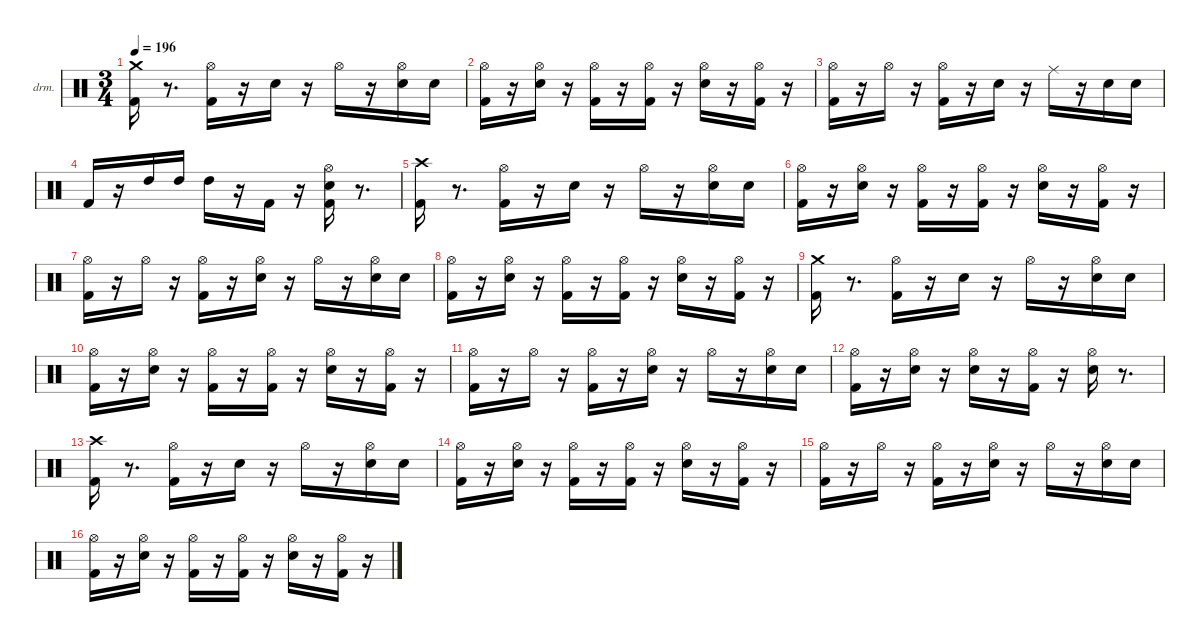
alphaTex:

\hideDynamics
\bracketExtendMode nobrackets
\firstSystemTrackNameOrientation horizontal
\otherSystemsTrackNameOrientation horizontal
\track ("EZdrummer 3" "drm.") {instrument percussion}
\staff {score}
\articulation defaults
\ts (3 4)
\tempo 196
\clef neutral
\ks aminor
("Kick (hit) 2" "Crash medium (hit)").16{dy fff beam Down} r.8{d beam Down} ("Kick (hit) 2" "Hi-Hat (open)"{acc #}).16{dy f beam Down} r.16{beam Down} "Snare (hit) 2".16{dy ff beam Down} r.16{beam Down} "Hi-Hat (open)"{acc #}.16{dy f beam Down} r.16{beam Down} ("Snare (hit) 2" "Hi-Hat (open)"{acc #}).16{beam Down} "Snare (hit) 2".16{dy mp beam Down} |
("Kick (hit) 2" "Hi-Hat (open)"{acc #}).16{dy fff beam Down} r.16{beam Down} ("Snare (hit) 2" "Hi-Hat (open)"{acc #}).16{dy ff beam Down} r.16{beam Down} ("Kick (hit) 2" "Hi-Hat (open)"{acc #}).16{dy mf beam Down} r.16{beam Down} ("Kick (hit) 2" "Hi-Hat (open)"{acc #}).16{dy fff beam Down} r.16{beam Down} ("Snare (hit) 2" "Hi-Hat (open)"{acc #}).16{dy ff beam Down} r.16{beam Down} ("Kick (hit) 2" "Hi-Hat (open)"{acc #}).16{dy mp beam Down} r.16{beam Down} |
("Kick (hit) 2" "Hi-Hat (open)"{acc #}).16{dy fff beam Down} r.16{beam Down} "Hi-Hat (open)"{acc #}.16{dy pp beam Down} r.16{beam Down} ("Kick (hit) 2" "Hi-Hat (open)"{acc #}).16{dy f beam Down} r.16{beam Down} "Snare (hit) 2".16{dy ff beam Down} r.16{beam Down} "Ride (middle)"{acc #}.16{dy fff beam Down} r.16{beam Down} "Snare (hit) 2".16{dy f beam Down} "Snare (hit) 2".16{dy mp beam Down} |
"Kick (hit) 2".16{dy fff beam Up} r.16{beam Up} "High Tom (hit)".16{dy ff beam Down} "High Tom (hit)".16{dy mf beam Down} "High Tom (hit)".16{dy fff beam Down} r.16{beam Down} "Kick (hit) 2".16{dy ff beam Up} r.16{beam Up} ("Kick (hit) 2" "Snare (hit) 2" "Hi-Hat (open)"{acc #}).16{dy fff beam Down} r.8{d beam Down} |
("Kick (hit) 2" "Crash high (hit)"{acc #}).16{beam Down} r.8{d beam Down} ("Kick (hit) 2" "Hi-Hat (open)"{acc #}).16{dy f beam Down} r.16{beam Down} "Snare (hit) 2".16{dy ff beam Down} r.16{beam Down} "Hi-Hat (open)"{acc #}.16{dy f beam Down} r.16{beam Down} ("Snare (hit) 2" "Hi-Hat (open)"{acc #}).16{beam Down} "Snare (hit) 2".16{dy mp beam Down} |
("Kick (hit) 2" "Hi-Hat (open)"{acc #}).16{dy fff beam Down} r.16{beam Down} ("Snare (hit) 2" "Hi-Hat (open)"{acc #}).16{dy ff beam Down} r.16{beam Down} ("Kick (hit) 2" "Hi-Hat (open)"{acc #}).16{dy mf beam Down} r.16{beam Down} ("Kick (hit) 2" "Hi-Hat (open)"{acc #}).16{dy fff beam Down} r.16{beam Down} ("Snare (hit) 2" "Hi-Hat (open)"{acc #}).16{dy ff beam Down} r.16{beam Down} ("Kick (hit) 2" "Hi-Hat (open)"{acc #}).16{dy mp beam Down} r.16{beam Down} |
("Kick (hit) 2" "Hi-Hat (open)"{acc #}).16{dy fff beam Down} r.16{beam Down} "Hi-Hat (open)"{acc #}.16{dy pp beam Down} r.16{beam Down} ("Kick (hit) 2" "Hi-Hat (open)"{acc #}).16{dy f beam Down} r.16{beam Down} ("Snare (hit) 2" "Hi-Hat (open)"{acc #}).16{dy ff beam Down} r.16{beam Down} "Hi-Hat (open)"{acc #}.16{dy f beam Down} r.16{beam Down} ("Snare (hit) 2" "Hi-Hat (open)"{acc #}).16{beam Down} "Snare (hit) 2".16{dy mp beam Down} |
("Kick (hit) 2" "Hi-Hat (open)"{acc #}).16{dy fff beam Down} r.16{beam Down} ("Snare (hit) 2" "Hi-Hat (open)"{acc #}).16{dy ff beam Down} r.16{beam Down} ("Kick (hit) 2" "Hi-Hat (open)"{acc #}).16{dy mf beam Down} r.16{beam Down} ("Kick (hit) 2" "Hi-Hat (open)"{acc #}).16{dy fff beam Down} r.16{beam Down} ("Snare (hit) 2" "Hi-Hat (open)"{acc #}).16{dy ff beam Down} r.16{beam Down} ("Kick (hit) 2" "Hi-Hat (open)"{acc #}).16{dy mp beam Down} r.16{beam Down} |
("Kick (hit) 2" "Crash medium (hit)").16{dy fff beam Down} r.8{d beam Down} ("Kick (hit) 2" "Hi-Hat (open)"{acc #}).16{dy f beam Down} r.16{beam Down} "Snare (hit) 2".16{dy ff beam Down} r.16{beam Down} "Hi-Hat (open)"{acc #}.16{dy f beam Down} r.16{beam Down} ("Snare (hit) 2" "Hi-Hat (open)"{acc #}).16{beam Down} "Snare (hit) 2".16{dy mp beam Down} |
("Kick (hit) 2" "Hi-Hat (open)"{acc #}).16{dy fff beam Down} r.16{beam Down} ("Snare (hit) 2" "Hi-Hat (open)"{acc #}).16{dy ff beam Down} r.16{beam Down} ("Kick (hit) 2" "Hi-Hat (open)"{acc #}).16{dy mf beam Down} r.16{beam Down} ("Kick (hit) 2" "Hi-Hat (open)"{acc #}).16{dy fff beam Down} r.16{beam Down} ("Snare (hit) 2" "Hi-Hat (open)"{acc #}).16{dy ff beam Down} r.16{beam Down} ("Kick (hit) 2" "Hi-Hat (open)"{acc #}).16{dy mp beam Down} r.16{beam Down} |
("Kick (hit) 2" "Hi-Hat (open)"{acc #}).16{dy fff beam Down} r.16{beam Down} "Hi-Hat (open)"{acc #}.16{dy pp beam Down} r.16{beam Down} ("Kick (hit) 2" "Hi-Hat (open)"{acc #}).16{dy f beam Down} r.16{beam Down} ("Snare (hit) 2" "Hi-Hat (open)"{acc #}).16{dy ff beam Down} r.16{beam Down} "Hi-Hat (open)"{acc #}.16{dy fff beam Down} r.16{beam Down} ("Snare (hit) 2" "Hi-Hat (open)"{acc #}).16{dy f beam Down} "Snare (hit) 2".16{dy mp beam Down} |
("Kick (hit) 2" "Hi-Hat (open)"{acc #}).16{dy fff beam Down} r.16{beam Down} ("Snare (hit) 2" "Hi-Hat (open)"{acc #}).16{dy ff beam Down} r.16{beam Down} ("Snare (hit) 2" "Hi-Hat (open)"{acc #}).16{dy pp beam Down} r.16{beam Down} ("Kick (hit) 2" "Hi-Hat (open)"{acc #}).16{dy f beam Down} r.16{beam Down} ("Snare (hit) 2" "Hi-Hat (open)"{acc #}).16{dy ff beam Down} r.8{d beam Down} |
("Kick (hit) 2" "Crash high (hit)"{acc #}).16{dy fff beam Down} r.8{d beam Down} ("Kick (hit) 2" "Hi-Hat (open)"{acc #}).16{dy f beam Down} r.16{beam Down} "Snare (hit) 2".16{dy ff beam Down} r.16{beam Down} "Hi-Hat (open)"{acc #}.16{dy f beam Down} r.16{beam Down} ("Snare (hit) 2" "Hi-Hat (open)"{acc #}).16{beam Down} "Snare (hit) 2".16{dy mp beam Down} |
("Kick (hit) 2" "Hi-Hat (open)"{acc #}).16{dy fff beam Down} r.16{beam Down} ("Snare (hit) 2" "Hi-Hat (open)"{acc #}).16{dy ff beam Down} r.16{beam Down} ("Kick (hit) 2" "Hi-Hat (open)"{acc #}).16{dy mf beam Down} r.16{beam Down} ("Kick (hit) 2" "Hi-Hat (open)"{acc #}).16{dy fff beam Down} r.16{beam Down} ("Snare (hit) 2" "Hi-Hat (open)"{acc #}).16{dy ff beam Down} r.16{beam Down} ("Kick (hit) 2" "Hi-Hat (open)"{acc #}).16{dy mp beam Down} r.16{beam Down} |
("Kick (hit) 2" "Hi-Hat (open)"{acc #}).16{dy fff beam Down} r.16{beam Down} "Hi-Hat (open)"{acc #}.16{dy pp beam Down} r.16{beam Down} ("Kick (hit) 2" "Hi-Hat (open)"{acc #}).16{dy f beam Down} r.16{beam Down} ("Snare (hit) 2" "Hi-Hat (open)"{acc #}).16{dy ff beam Down} r.16{beam Down} "Hi-Hat (open)"{acc #}.16{dy f beam Down} r.16{beam Down} ("Snare (hit) 2" "Hi-Hat (open)"{acc #}).16{beam Down} "Snare (hit) 2".16{dy mp beam Down} |
("Kick (hit) 2" "Hi-Hat (open)"{acc #}).16{dy fff beam Down} r.16{beam Down} ("Snare (hit) 2" "Hi-Hat (open)"{acc #}).16{dy ff beam Down} r.16{beam Down} ("Kick (hit) 2" "Hi-Hat (open)"{acc #}).16{dy mf beam Down} r.16{beam Down} ("Kick (hit) 2" "Hi-Hat (open)"{acc #}).16{dy fff beam Down} r.16{beam Down} ("Snare (hit) 2" "Hi-Hat (open)"{acc #}).16{dy ff beam Down} r.16{beam Down} ("Kick (hit) 2" "Hi-Hat (open)"{acc #}).16{dy mp beam Down} r.16{beam Down}
